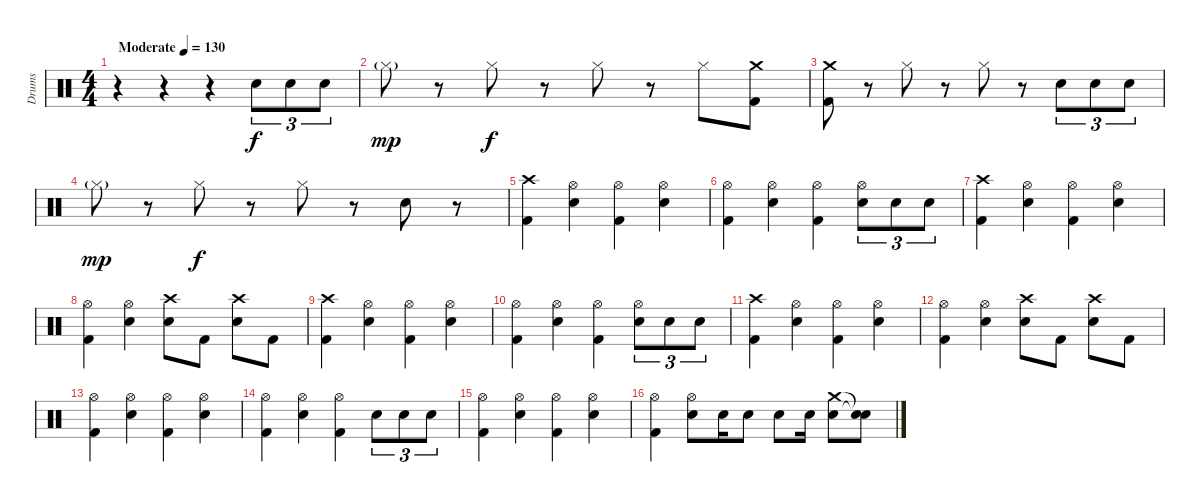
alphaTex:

\track ("Drums" "Drums") {instrument percussion}
\staff {score}
\articulation defaults
\ts (4 4)
\tempo (130 "Moderate")
\clef neutral
\ks c
r.4{dy f} r.4 r.4 "Snare (hit) 2".8{tu (3 2)} "Snare (hit) 2".8{tu (3 2)} "Snare (hit) 2".8{tu (3 2)} |
"Hi-Hat (closed)"{g}.8{dy mp} r.8 "Hi-Hat (closed)".8{dy f} r.8 "Hi-Hat (closed)".8 r.8 "Hi-Hat (closed)".8 ("Crash medium (hit)" "Kick (hit) 2").8 |
("Crash medium (hit)" "Kick (hit) 2").8 r.8 "Hi-Hat (closed)".8 r.8 "Hi-Hat (closed)".8 r.8 "Snare (hit) 2".8{tu (3 2)} "Snare (hit) 2".8{tu (3 2)} "Snare (hit) 2".8{tu (3 2)} |
"Hi-Hat (closed)"{g}.8{dy mp} r.8 "Hi-Hat (closed)".8{dy f} r.8 "Hi-Hat (closed)".8 r.8 "Snare (hit) 2".8 r.8 |
("Crash high (hit)" "Kick (hit) 2").4 ("Hi-Hat (open)" "Snare (hit) 2").4 ("Hi-Hat (open)" "Kick (hit) 2").4 ("Hi-Hat (open)" "Snare (hit) 2").4 |
("Hi-Hat (open)" "Kick (hit) 2").4 ("Hi-Hat (open)" "Snare (hit) 2").4 ("Hi-Hat (open)" "Kick (hit) 2").4 ("Hi-Hat (open)" "Snare (hit) 2").8{tu (3 2)} "Snare (hit) 2".8{tu (3 2)} "Snare (hit) 2".8{tu (3 2)} |
("Crash high (hit)" "Kick (hit) 2").4 ("Hi-Hat (open)" "Snare (hit) 2").4 ("Hi-Hat (open)" "Kick (hit) 2").4 ("Hi-Hat (open)" "Snare (hit) 2").4 |
("Hi-Hat (open)" "Kick (hit) 2").4 ("Hi-Hat (open)" "Snare (hit) 2").4 ("Crash high (hit)" "Snare (hit) 2").8 "Kick (hit) 2".8 ("Crash high (hit)" "Snare (hit) 2").8 "Kick (hit) 2".8 |
("Crash high (hit)" "Kick (hit) 2").4 ("Hi-Hat (open)" "Snare (hit) 2").4 ("Hi-Hat (open)" "Kick (hit) 2").4 ("Hi-Hat (open)" "Snare (hit) 2").4 |
("Hi-Hat (open)" "Kick (hit) 2").4 ("Hi-Hat (open)" "Snare (hit) 2").4 ("Hi-Hat (open)" "Kick (hit) 2").4 ("Hi-Hat (open)" "Snare (hit) 2").8{tu (3 2)} "Snare (hit) 2".8{tu (3 2)} "Snare (hit) 2".8{tu (3 2)} |
("Crash high (hit)" "Kick (hit) 2").4 ("Hi-Hat (open)" "Snare (hit) 2").4 ("Hi-Hat (open)" "Kick (hit) 2").4 ("Hi-Hat (open)" "Snare (hit) 2").4 |
("Hi-Hat (open)" "Kick (hit) 2").4 ("Hi-Hat (open)" "Snare (hit) 2").4 ("Crash high (hit)" "Snare (hit) 2").8 "Kick (hit) 2".8 ("Crash high (hit)" "Snare (hit) 2").8 "Kick (hit) 2".8 |
("Hi-Hat (open)" "Kick (hit) 2").4 ("Hi-Hat (open)" "Snare (hit) 2").4 ("Hi-Hat (open)" "Kick (hit) 2").4 ("Hi-Hat (open)" "Snare (hit) 2").4 |
("Hi-Hat (open)" "Kick (hit) 2").4 ("Hi-Hat (open)" "Snare (hit) 2").4 ("Hi-Hat (open)" "Kick (hit) 2").4 "Snare (hit) 2".8{tu (3 2)} "Snare (hit) 2".8{tu (3 2)} "Snare (hit) 2".8{tu (3 2)} |
("Hi-Hat (open)" "Kick (hit) 2").4 ("Hi-Hat (open)" "Snare (hit) 2").4 ("Hi-Hat (open)" "Kick (hit) 2").4 ("Hi-Hat (open)" "Snare (hit) 2").4 |
("Hi-Hat (open)" "Kick (hit) 2").4 ("Hi-Hat (open)" "Snare (hit) 2").8 "Snare (hit) 2".16 "Snare (hit) 2".8 "Snare (hit) 2".8 "Snare (hit) 2".16 ("Crash medium (hit)" "Snare (hit) 2").8 ("Snare (hit)"{t} "Snare (hit)"{t}).8
